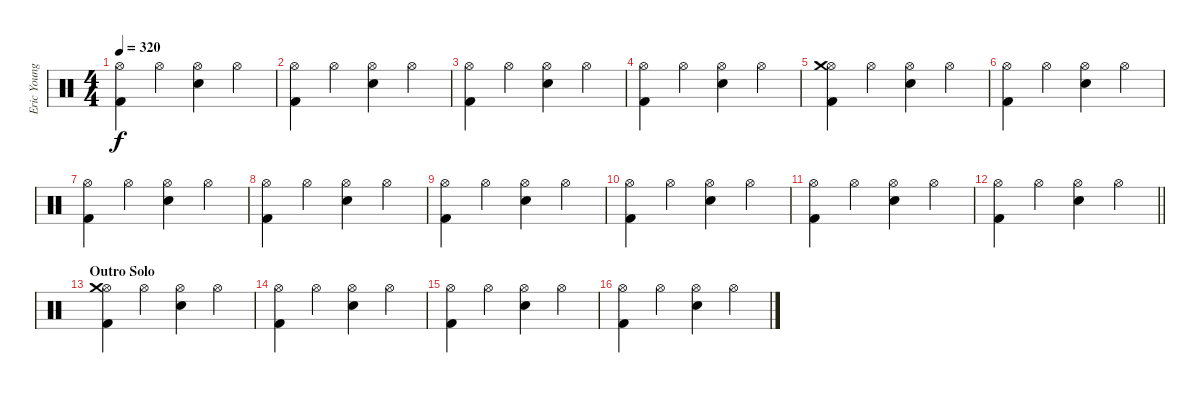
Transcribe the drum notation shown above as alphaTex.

\track ("Eric Young (Drums)" "Eric Young") {instrument percussion}
\staff {score}
\articulation defaults
\ts (4 4)
\tempo 320
\clef neutral
\ks c
("Hi-Hat (open)" "Kick (hit) 2").4{dy f} "Hi-Hat (open)".4 ("Hi-Hat (open)" "Snare (hit) 2").4 "Hi-Hat (open)".4 |
("Hi-Hat (open)" "Kick (hit) 2").4 "Hi-Hat (open)".4 ("Hi-Hat (open)" "Snare (hit) 2").4 "Hi-Hat (open)".4 |
("Hi-Hat (open)" "Kick (hit) 2").4 "Hi-Hat (open)".4 ("Hi-Hat (open)" "Snare (hit) 2").4 "Hi-Hat (open)".4 |
("Hi-Hat (open)" "Kick (hit) 2").4 "Hi-Hat (open)".4 ("Hi-Hat (open)" "Snare (hit) 2").4 "Hi-Hat (open)".4 |
("Hi-Hat (open)" "Kick (hit) 2" "Crash medium (hit)").4 "Hi-Hat (open)".4 ("Hi-Hat (open)" "Snare (hit) 2").4 "Hi-Hat (open)".4 |
("Hi-Hat (open)" "Kick (hit) 2").4 "Hi-Hat (open)".4 ("Hi-Hat (open)" "Snare (hit) 2").4 "Hi-Hat (open)".4 |
("Hi-Hat (open)" "Kick (hit) 2").4 "Hi-Hat (open)".4 ("Hi-Hat (open)" "Snare (hit) 2").4 "Hi-Hat (open)".4 |
("Hi-Hat (open)" "Kick (hit) 2").4 "Hi-Hat (open)".4 ("Hi-Hat (open)" "Snare (hit) 2").4 "Hi-Hat (open)".4 |
("Hi-Hat (open)" "Kick (hit) 2").4 "Hi-Hat (open)".4 ("Hi-Hat (open)" "Snare (hit) 2").4 "Hi-Hat (open)".4 |
("Hi-Hat (open)" "Kick (hit) 2").4 "Hi-Hat (open)".4 ("Hi-Hat (open)" "Snare (hit) 2").4 "Hi-Hat (open)".4 |
("Hi-Hat (open)" "Kick (hit) 2").4 "Hi-Hat (open)".4 ("Hi-Hat (open)" "Snare (hit) 2").4 "Hi-Hat (open)".4 |
\barLineRight lightlight
("Hi-Hat (open)" "Kick (hit) 2").4 "Hi-Hat (open)".4 ("Hi-Hat (open)" "Snare (hit) 2").4 "Hi-Hat (open)".4 |
\section ("" "Outro Solo")
("Hi-Hat (open)" "Kick (hit) 2" "Crash medium (hit)").4 "Hi-Hat (open)".4 ("Hi-Hat (open)" "Snare (hit) 2").4 "Hi-Hat (open)".4 |
("Hi-Hat (open)" "Kick (hit) 2").4 "Hi-Hat (open)".4 ("Hi-Hat (open)" "Snare (hit) 2").4 "Hi-Hat (open)".4 |
("Hi-Hat (open)" "Kick (hit) 2").4 "Hi-Hat (open)".4 ("Hi-Hat (open)" "Snare (hit) 2").4 "Hi-Hat (open)".4 |
("Hi-Hat (open)" "Kick (hit) 2").4 "Hi-Hat (open)".4 ("Hi-Hat (open)" "Snare (hit) 2").4 "Hi-Hat (open)".4
